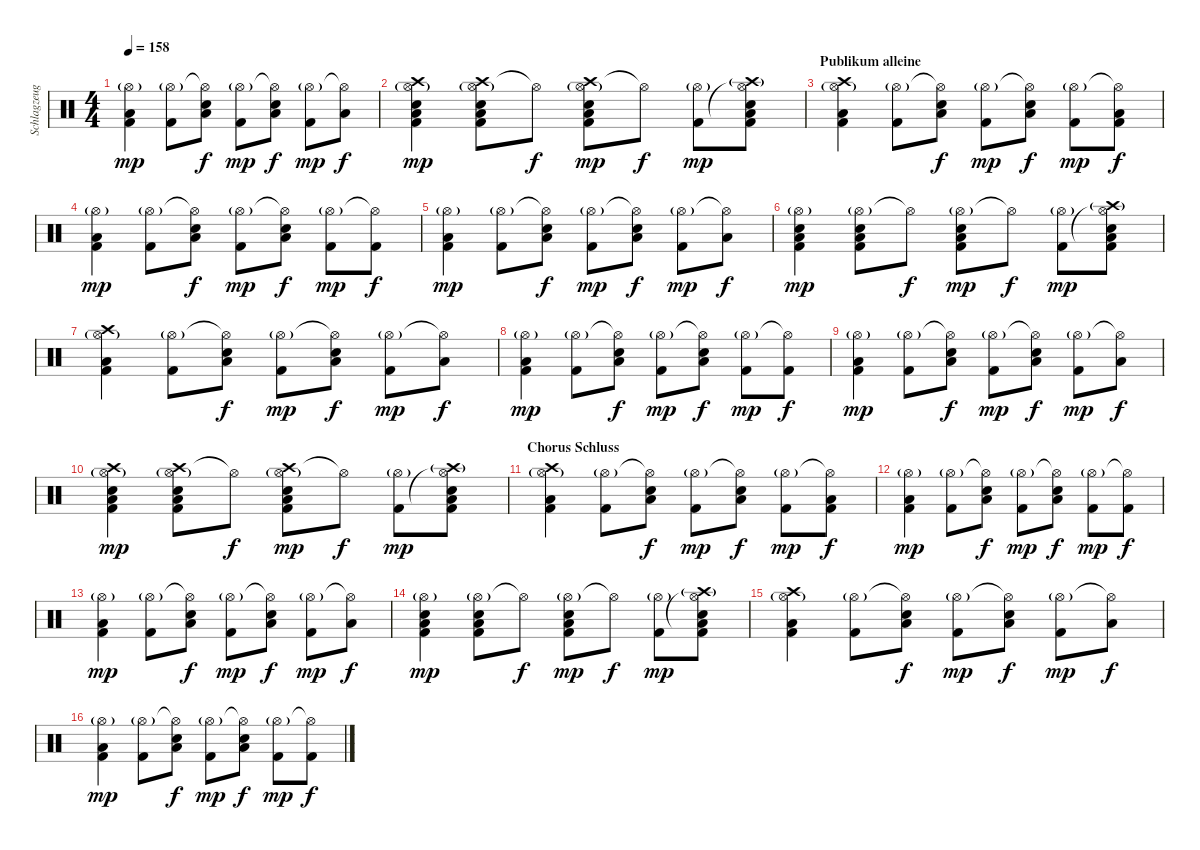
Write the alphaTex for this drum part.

\track ("Schlagzeug" "Schlagzeug") {instrument percussion}
\staff {score}
\articulation defaults
\ts (4 4)
\tempo 158
\clef neutral
\ks c
("Hi-Hat (open)"{g} "Low Floor Tom (hit)" "Kick (hit) 2").4{dy mp} ("Hi-Hat (open)"{g} "Kick (hit) 2").8 ("Hi-Hat (open)"{t} "Low Floor Tom (hit)" "Electric Snare (hit)").8{dy f} ("Hi-Hat (open)"{g} "Kick (hit) 2").8{dy mp} ("Hi-Hat (open)"{t} "Low Floor Tom (hit)" "Electric Snare (hit)").8{dy f} ("Hi-Hat (open)"{g} "Kick (hit) 2").8{dy mp} ("Hi-Hat (open)"{t} "Low Floor Tom (hit)").8{dy f} |
("Crash high (hit)" "Hi-Hat (open)"{g} "Low Floor Tom (hit)" "Electric Snare (hit)" "Kick (hit) 2").4{dy mp} ("Crash high (hit)" "Hi-Hat (open)"{g} "Low Floor Tom (hit)" "Electric Snare (hit)" "Kick (hit) 2").8 "Hi-Hat (open)"{t}.8{dy f} ("Crash high (hit)" "Hi-Hat (open)"{g} "Low Floor Tom (hit)" "Electric Snare (hit)" "Kick (hit) 2").8{dy mp} "Hi-Hat (open)"{t}.8{dy f} ("Hi-Hat (open)"{g} "Kick (hit) 2").8{dy mp} ("Crash high (hit)"{g} "Hi-Hat (open)"{t} "Low Floor Tom (hit)" "Electric Snare (hit)" "Kick (hit) 2").8 |
\section ("" "Publikum alleine")
("Crash high (hit)" "Hi-Hat (open)"{g} "Low Floor Tom (hit)" "Kick (hit) 2").4 ("Hi-Hat (open)"{g} "Kick (hit) 2").8 ("Hi-Hat (open)"{t} "Low Floor Tom (hit)" "Electric Snare (hit)").8{dy f} ("Hi-Hat (open)"{g} "Kick (hit) 2").8{dy mp} ("Hi-Hat (open)"{t} "Low Floor Tom (hit)" "Electric Snare (hit)").8{dy f} ("Hi-Hat (open)"{g} "Kick (hit) 2").8{dy mp} ("Hi-Hat (open)"{t} "Low Floor Tom (hit)" "Kick (hit) 2").8{dy f} |
("Hi-Hat (open)"{g} "Low Floor Tom (hit)" "Kick (hit) 2").4{dy mp} ("Hi-Hat (open)"{g} "Kick (hit) 2").8 ("Hi-Hat (open)"{t} "Low Floor Tom (hit)" "Electric Snare (hit)").8{dy f} ("Hi-Hat (open)"{g} "Kick (hit) 2").8{dy mp} ("Hi-Hat (open)"{t} "Low Floor Tom (hit)" "Electric Snare (hit)").8{dy f} ("Hi-Hat (open)"{g} "Kick (hit) 2").8{dy mp} ("Hi-Hat (open)"{t} "Kick (hit) 2").8{dy f} |
("Hi-Hat (open)"{g} "Low Floor Tom (hit)" "Kick (hit) 2").4{dy mp} ("Hi-Hat (open)"{g} "Kick (hit) 2").8 ("Hi-Hat (open)"{t} "Low Floor Tom (hit)" "Electric Snare (hit)").8{dy f} ("Hi-Hat (open)"{g} "Kick (hit) 2").8{dy mp} ("Hi-Hat (open)"{t} "Low Floor Tom (hit)" "Electric Snare (hit)").8{dy f} ("Hi-Hat (open)"{g} "Kick (hit) 2").8{dy mp} ("Hi-Hat (open)"{t} "Low Floor Tom (hit)").8{dy f} |
("Hi-Hat (open)"{g} "Low Floor Tom (hit)" "Electric Snare (hit)" "Kick (hit) 2").4{dy mp} ("Hi-Hat (open)"{g} "Low Floor Tom (hit)" "Electric Snare (hit)" "Kick (hit) 2").8 "Hi-Hat (open)"{t}.8{dy f} ("Hi-Hat (open)"{g} "Low Floor Tom (hit)" "Electric Snare (hit)" "Kick (hit) 2").8{dy mp} "Hi-Hat (open)"{t}.8{dy f} ("Hi-Hat (open)"{g} "Kick (hit) 2").8{dy mp} ("Crash high (hit)"{g} "Hi-Hat (open)"{t} "Low Floor Tom (hit)" "Electric Snare (hit)" "Kick (hit) 2").8 |
("Crash high (hit)" "Hi-Hat (open)"{g} "Low Floor Tom (hit)" "Kick (hit) 2").4 ("Hi-Hat (open)"{g} "Kick (hit) 2").8 ("Hi-Hat (open)"{t} "Low Floor Tom (hit)" "Electric Snare (hit)").8{dy f} ("Hi-Hat (open)"{g} "Kick (hit) 2").8{dy mp} ("Hi-Hat (open)"{t} "Low Floor Tom (hit)" "Electric Snare (hit)").8{dy f} ("Hi-Hat (open)"{g} "Kick (hit) 2").8{dy mp} ("Hi-Hat (open)"{t} "Low Floor Tom (hit)").8{dy f} |
("Hi-Hat (open)"{g} "Low Floor Tom (hit)" "Kick (hit) 2").4{dy mp} ("Hi-Hat (open)"{g} "Kick (hit) 2").8 ("Hi-Hat (open)"{t} "Low Floor Tom (hit)" "Electric Snare (hit)").8{dy f} ("Hi-Hat (open)"{g} "Kick (hit) 2").8{dy mp} ("Hi-Hat (open)"{t} "Low Floor Tom (hit)" "Electric Snare (hit)").8{dy f} ("Hi-Hat (open)"{g} "Kick (hit) 2").8{dy mp} ("Hi-Hat (open)"{t} "Kick (hit) 2").8{dy f} |
("Hi-Hat (open)"{g} "Low Floor Tom (hit)" "Kick (hit) 2").4{dy mp} ("Hi-Hat (open)"{g} "Kick (hit) 2").8 ("Hi-Hat (open)"{t} "Low Floor Tom (hit)" "Electric Snare (hit)").8{dy f} ("Hi-Hat (open)"{g} "Kick (hit) 2").8{dy mp} ("Hi-Hat (open)"{t} "Low Floor Tom (hit)" "Electric Snare (hit)").8{dy f} ("Hi-Hat (open)"{g} "Kick (hit) 2").8{dy mp} ("Hi-Hat (open)"{t} "Low Floor Tom (hit)").8{dy f} |
("Crash high (hit)" "Hi-Hat (open)"{g} "Low Floor Tom (hit)" "Electric Snare (hit)" "Kick (hit) 2").4{dy mp} ("Crash high (hit)" "Hi-Hat (open)"{g} "Low Floor Tom (hit)" "Electric Snare (hit)" "Kick (hit) 2").8 "Hi-Hat (open)"{t}.8{dy f} ("Crash high (hit)" "Hi-Hat (open)"{g} "Low Floor Tom (hit)" "Electric Snare (hit)" "Kick (hit) 2").8{dy mp} "Hi-Hat (open)"{t}.8{dy f} ("Hi-Hat (open)"{g} "Kick (hit) 2").8{dy mp} ("Crash high (hit)"{g} "Hi-Hat (open)"{t} "Low Floor Tom (hit)" "Electric Snare (hit)" "Kick (hit) 2").8 |
\section ("" "Chorus Schluss")
("Crash high (hit)" "Hi-Hat (open)"{g} "Low Floor Tom (hit)" "Kick (hit) 2").4 ("Hi-Hat (open)"{g} "Kick (hit) 2").8 ("Hi-Hat (open)"{t} "Low Floor Tom (hit)" "Electric Snare (hit)").8{dy f} ("Hi-Hat (open)"{g} "Kick (hit) 2").8{dy mp} ("Hi-Hat (open)"{t} "Low Floor Tom (hit)" "Electric Snare (hit)").8{dy f} ("Hi-Hat (open)"{g} "Kick (hit) 2").8{dy mp} ("Hi-Hat (open)"{t} "Low Floor Tom (hit)" "Kick (hit) 2").8{dy f} |
("Hi-Hat (open)"{g} "Low Floor Tom (hit)" "Kick (hit) 2").4{dy mp} ("Hi-Hat (open)"{g} "Kick (hit) 2").8 ("Hi-Hat (open)"{t} "Low Floor Tom (hit)" "Electric Snare (hit)").8{dy f} ("Hi-Hat (open)"{g} "Kick (hit) 2").8{dy mp} ("Hi-Hat (open)"{t} "Low Floor Tom (hit)" "Electric Snare (hit)").8{dy f} ("Hi-Hat (open)"{g} "Kick (hit) 2").8{dy mp} ("Hi-Hat (open)"{t} "Kick (hit) 2").8{dy f} |
("Hi-Hat (open)"{g} "Low Floor Tom (hit)" "Kick (hit) 2").4{dy mp} ("Hi-Hat (open)"{g} "Kick (hit) 2").8 ("Hi-Hat (open)"{t} "Low Floor Tom (hit)" "Electric Snare (hit)").8{dy f} ("Hi-Hat (open)"{g} "Kick (hit) 2").8{dy mp} ("Hi-Hat (open)"{t} "Low Floor Tom (hit)" "Electric Snare (hit)").8{dy f} ("Hi-Hat (open)"{g} "Kick (hit) 2").8{dy mp} ("Hi-Hat (open)"{t} "Low Floor Tom (hit)").8{dy f} |
("Hi-Hat (open)"{g} "Low Floor Tom (hit)" "Electric Snare (hit)" "Kick (hit) 2").4{dy mp} ("Hi-Hat (open)"{g} "Low Floor Tom (hit)" "Electric Snare (hit)" "Kick (hit) 2").8 "Hi-Hat (open)"{t}.8{dy f} ("Hi-Hat (open)"{g} "Low Floor Tom (hit)" "Electric Snare (hit)" "Kick (hit) 2").8{dy mp} "Hi-Hat (open)"{t}.8{dy f} ("Hi-Hat (open)"{g} "Kick (hit) 2").8{dy mp} ("Crash high (hit)"{g} "Hi-Hat (open)"{t} "Low Floor Tom (hit)" "Electric Snare (hit)" "Kick (hit) 2").8 |
("Crash high (hit)" "Hi-Hat (open)"{g} "Low Floor Tom (hit)" "Kick (hit) 2").4 ("Hi-Hat (open)"{g} "Kick (hit) 2").8 ("Hi-Hat (open)"{t} "Low Floor Tom (hit)" "Electric Snare (hit)").8{dy f} ("Hi-Hat (open)"{g} "Kick (hit) 2").8{dy mp} ("Hi-Hat (open)"{t} "Low Floor Tom (hit)" "Electric Snare (hit)").8{dy f} ("Hi-Hat (open)"{g} "Kick (hit) 2").8{dy mp} ("Hi-Hat (open)"{t} "Low Floor Tom (hit)").8{dy f} |
("Hi-Hat (open)"{g} "Low Floor Tom (hit)" "Kick (hit) 2").4{dy mp} ("Hi-Hat (open)"{g} "Kick (hit) 2").8 ("Hi-Hat (open)"{t} "Low Floor Tom (hit)" "Electric Snare (hit)").8{dy f} ("Hi-Hat (open)"{g} "Kick (hit) 2").8{dy mp} ("Hi-Hat (open)"{t} "Low Floor Tom (hit)" "Electric Snare (hit)").8{dy f} ("Hi-Hat (open)"{g} "Kick (hit) 2").8{dy mp} ("Hi-Hat (open)"{t} "Kick (hit) 2").8{dy f}
